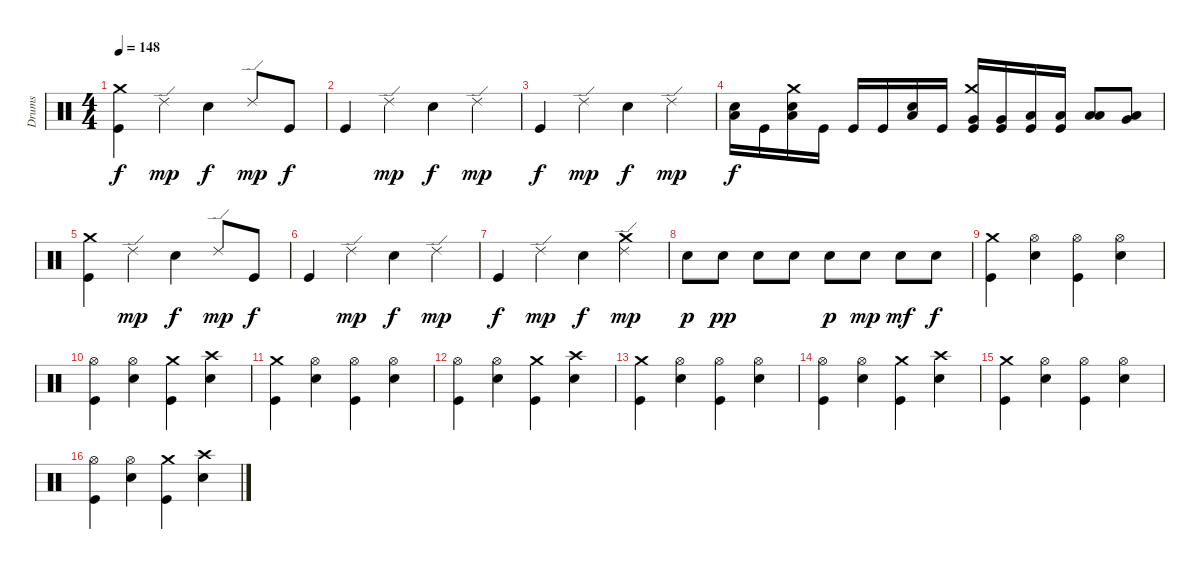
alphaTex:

\track ("Drums" "Drums") {instrument percussion}
\staff {score}
\articulation defaults
\ts (4 4)
\tempo 148
\clef neutral
\ks c
("Kick (hit)" "Crash medium (hit)").4{dy f} "Ride (edge) 2".4{dy mp} "Snare (hit) 2".4{dy f} "Ride (edge) 2".8{dy mp} "Kick (hit)".8{dy f} |
"Kick (hit)".4 "Ride (edge) 2".4{dy mp} "Snare (hit) 2".4{dy f} "Ride (edge) 2".4{dy mp} |
"Kick (hit)".4{dy f} "Ride (edge) 2".4{dy mp} "Snare (hit) 2".4{dy f} "Ride (edge) 2".4{dy mp} |
("Snare (hit) 2" "Low Floor Tom (hit)").16{dy f} "Kick (hit)".16 ("Snare (hit) 2" "Crash medium (hit)" "Low Floor Tom (hit)").16 "Kick (hit)".16 "Kick (hit)".16 "Kick (hit)".16 ("Snare (hit) 2" "Low Tom (hit)").16 "Kick (hit)".16 ("Kick (hit)" "Crash medium (hit)" "Very Low Tom (hit)").16 ("Kick (hit)" "Very Low Tom (hit)").16 ("Kick (hit)" "Low Floor Tom (hit)").16 ("Kick (hit)" "Low Floor Tom (hit)").16 ("Low Tom (hit)" "Low Floor Tom (hit)").8 ("Very Low Tom (hit)" "Low Floor Tom (hit)").8 |
("Kick (hit)" "Crash medium (hit)").4 "Ride (edge) 2".4{dy mp} "Snare (hit) 2".4{dy f} "Ride (edge) 2".8{dy mp} "Kick (hit)".8{dy f} |
"Kick (hit)".4 "Ride (edge) 2".4{dy mp} "Snare (hit) 2".4{dy f} "Ride (edge) 2".4{dy mp} |
"Kick (hit)".4{dy f} "Ride (edge) 2".4{dy mp} "Snare (hit) 2".4{dy f} ("Ride (edge) 2" "Crash medium (hit)").4{dy mp} |
"Snare (hit) 2".8{dy p} "Snare (hit) 2".8{dy pp} "Snare (hit) 2".8 "Snare (hit) 2".8 "Snare (hit) 2".8{dy p} "Snare (hit) 2".8{dy mp} "Snare (hit) 2".8{dy mf} "Snare (hit) 2".8{dy f} |
("Kick (hit)" "Crash medium (hit)").4 ("Snare (hit) 2" "Hi-Hat (open)").4 ("Kick (hit)" "Hi-Hat (open)").4 ("Snare (hit) 2" "Hi-Hat (open)").4 |
("Kick (hit)" "Hi-Hat (open)").4 ("Snare (hit) 2" "Hi-Hat (open)").4 ("Kick (hit)" "Crash medium (hit)").4 ("Snare (hit) 2" "Crash high (hit)").4 |
("Kick (hit)" "Crash medium (hit)").4 ("Snare (hit) 2" "Hi-Hat (open)").4 ("Kick (hit)" "Hi-Hat (open)").4 ("Snare (hit) 2" "Hi-Hat (open)").4 |
("Kick (hit)" "Hi-Hat (open)").4 ("Snare (hit) 2" "Hi-Hat (open)").4 ("Kick (hit)" "Crash medium (hit)").4 ("Snare (hit) 2" "Crash high (hit)").4 |
("Kick (hit)" "Crash medium (hit)").4 ("Snare (hit) 2" "Hi-Hat (open)").4 ("Kick (hit)" "Hi-Hat (open)").4 ("Snare (hit) 2" "Hi-Hat (open)").4 |
("Kick (hit)" "Hi-Hat (open)").4 ("Snare (hit) 2" "Hi-Hat (open)").4 ("Kick (hit)" "Crash medium (hit)").4 ("Snare (hit) 2" "Crash high (hit)").4 |
("Kick (hit)" "Crash medium (hit)").4 ("Snare (hit) 2" "Hi-Hat (open)").4 ("Kick (hit)" "Hi-Hat (open)").4 ("Snare (hit) 2" "Hi-Hat (open)").4 |
("Kick (hit)" "Hi-Hat (open)").4 ("Snare (hit) 2" "Hi-Hat (open)").4 ("Kick (hit)" "Crash medium (hit)").4 ("Snare (hit) 2" "Crash high (hit)").4
